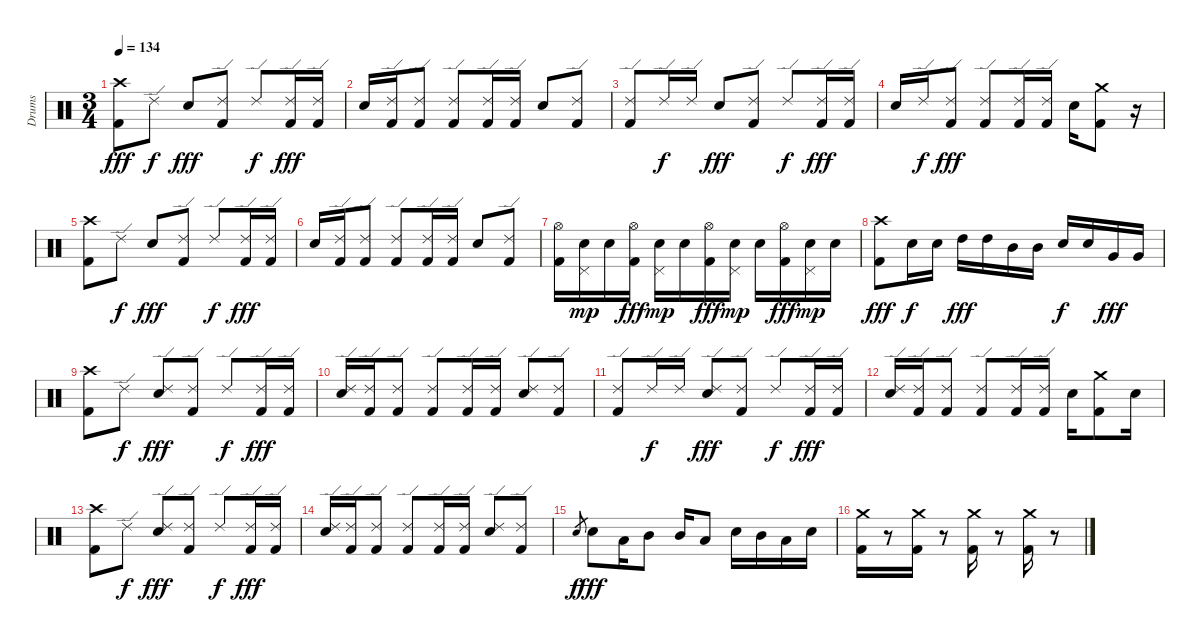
\track ("Drums" "Drums") {instrument percussion}
\staff {score}
\articulation defaults
\ts (3 4)
\tempo 134
\clef neutral
\ks c
("Kick (hit) 2" "Crash high (hit)").8{dy fff} "Ride (edge) 2".8{dy f} "Snare (hit) 2".8{dy fff} ("Ride (edge) 2" "Kick (hit) 2").8 "Ride (edge) 2".8{dy f} ("Ride (edge) 2" "Kick (hit) 2").16{dy fff} ("Ride (edge) 2" "Kick (hit) 2").16 |
"Snare (hit) 2".16 ("Ride (edge) 2" "Kick (hit) 2").16 ("Ride (edge) 2" "Kick (hit) 2").8 ("Ride (edge) 2" "Kick (hit) 2").8 ("Ride (edge) 2" "Kick (hit) 2").16 ("Ride (edge) 2" "Kick (hit) 2").16 "Snare (hit) 2".8 ("Ride (edge) 2" "Kick (hit) 2").8 |
("Ride (edge) 2" "Kick (hit) 2").8 "Ride (edge) 2".16{dy f} "Ride (edge) 2".16 "Snare (hit) 2".8{dy fff} ("Ride (edge) 2" "Kick (hit) 2").8 "Ride (edge) 2".8{dy f} ("Ride (edge) 2" "Kick (hit) 2").16{dy fff} ("Ride (edge) 2" "Kick (hit) 2").16 |
"Snare (hit) 2".16 "Ride (edge) 2".16{dy f} ("Ride (edge) 2" "Kick (hit) 2").8{dy fff} ("Ride (edge) 2" "Kick (hit) 2").8 ("Ride (edge) 2" "Kick (hit) 2").16 ("Ride (edge) 2" "Kick (hit) 2").16 "Snare (hit) 2".16 ("Crash medium (hit)" "Kick (hit) 2").8 r.16 |
("Kick (hit) 2" "Crash high (hit)").8 "Ride (edge) 2".8{dy f} "Snare (hit) 2".8{dy fff} ("Ride (edge) 2" "Kick (hit) 2").8 "Ride (edge) 2".8{dy f} ("Ride (edge) 2" "Kick (hit) 2").16{dy fff} ("Ride (edge) 2" "Kick (hit) 2").16 |
"Snare (hit) 2".16 ("Ride (edge) 2" "Kick (hit) 2").16 ("Ride (edge) 2" "Kick (hit) 2").8 ("Ride (edge) 2" "Kick (hit) 2").8 ("Ride (edge) 2" "Kick (hit) 2").16 ("Ride (edge) 2" "Kick (hit) 2").16 "Snare (hit) 2".8 ("Ride (edge) 2" "Kick (hit) 2").8 |
("Hi-Hat (open)" "Kick (hit) 2").16 ("Pedal Hi-Hat (hit)" "Snare (hit) 2").16{dy mp} "Snare (hit) 2".16 ("Hi-Hat (open)" "Kick (hit) 2").16{dy fff} ("Pedal Hi-Hat (hit)" "Snare (hit) 2").16{dy mp} "Snare (hit) 2".16 ("Hi-Hat (open)" "Kick (hit) 2").16{dy fff} ("Pedal Hi-Hat (hit)" "Snare (hit) 2").16{dy mp} "Snare (hit) 2".16 ("Hi-Hat (open)" "Kick (hit) 2").16{dy fff} ("Pedal Hi-Hat (hit)" "Snare (hit) 2").16{dy mp} "Snare (hit) 2".16 |
("Kick (hit) 2" "Crash high (hit)").8{dy fff} "Snare (hit) 2".16{dy f} "Snare (hit) 2".16 "High Tom (hit)".16{dy fff} "High Tom (hit)".16 "Mid Tom (hit)".16 "Mid Tom (hit)".16 "Snare (hit) 2".16{dy f} "Snare (hit) 2".16 "Very Low Tom (hit)".16{dy fff} "Very Low Tom (hit)".16 |
("Kick (hit) 2" "Crash high (hit)").8 "Ride (edge) 2".8{dy f} ("Ride (edge) 2" "Snare (hit) 2").8{dy fff} ("Ride (edge) 2" "Kick (hit) 2").8 "Ride (edge) 2".8{dy f} ("Ride (edge) 2" "Kick (hit) 2").16{dy fff} ("Ride (edge) 2" "Kick (hit) 2").16 |
("Ride (edge) 2" "Snare (hit) 2").16 ("Ride (edge) 2" "Kick (hit) 2").16 ("Ride (edge) 2" "Kick (hit) 2").8 ("Ride (edge) 2" "Kick (hit) 2").8 ("Ride (edge) 2" "Kick (hit) 2").16 ("Ride (edge) 2" "Kick (hit) 2").16 ("Ride (edge) 2" "Snare (hit) 2").8 ("Ride (edge) 2" "Kick (hit) 2").8 |
("Ride (edge) 2" "Kick (hit) 2").8 "Ride (edge) 2".16{dy f} "Ride (edge) 2".16 ("Ride (edge) 2" "Snare (hit) 2").8{dy fff} ("Ride (edge) 2" "Kick (hit) 2").8 "Ride (edge) 2".8{dy f} ("Ride (edge) 2" "Kick (hit) 2").16{dy fff} ("Ride (edge) 2" "Kick (hit) 2").16 |
("Ride (edge) 2" "Snare (hit) 2").16 ("Ride (edge) 2" "Kick (hit) 2").16 ("Ride (edge) 2" "Kick (hit) 2").8 ("Ride (edge) 2" "Kick (hit) 2").8 ("Ride (edge) 2" "Kick (hit) 2").16 ("Ride (edge) 2" "Kick (hit) 2").16 "Snare (hit) 2".16 ("Crash medium (hit)" "Kick (hit) 2").8 "Snare (hit) 2".16 |
("Kick (hit) 2" "Crash high (hit)").8 "Ride (edge) 2".8{dy f} ("Ride (edge) 2" "Snare (hit) 2").8{dy fff} ("Ride (edge) 2" "Kick (hit) 2").8 "Ride (edge) 2".8{dy f} ("Ride (edge) 2" "Kick (hit) 2").16{dy fff} ("Ride (edge) 2" "Kick (hit) 2").16 |
("Ride (edge) 2" "Snare (hit) 2").16 ("Ride (edge) 2" "Kick (hit) 2").16 ("Ride (edge) 2" "Kick (hit) 2").8 ("Ride (edge) 2" "Kick (hit) 2").8 ("Ride (edge) 2" "Kick (hit) 2").16 ("Ride (edge) 2" "Kick (hit) 2").16 ("Ride (edge) 2" "Snare (hit) 2").8 ("Ride (edge) 2" "Kick (hit) 2").8 |
"Snare (hit) 2".8{gr dy f} "Snare (hit) 2".8{dy fff} "Low Tom (hit)".16 "Mid Tom (hit)".8 "Mid Tom (hit)".16 "Low Tom (hit)".8 "Snare (hit) 2".16 "Mid Tom (hit)".16 "Low Tom (hit)".16 "Snare (hit) 2".16 |
("Crash medium (hit)" "Kick (hit) 2").16 r.8 ("Crash medium (hit)" "Kick (hit) 2").16 r.8 ("Crash medium (hit)" "Kick (hit) 2").16 r.8 ("Crash medium (hit)" "Kick (hit) 2").16 r.8
